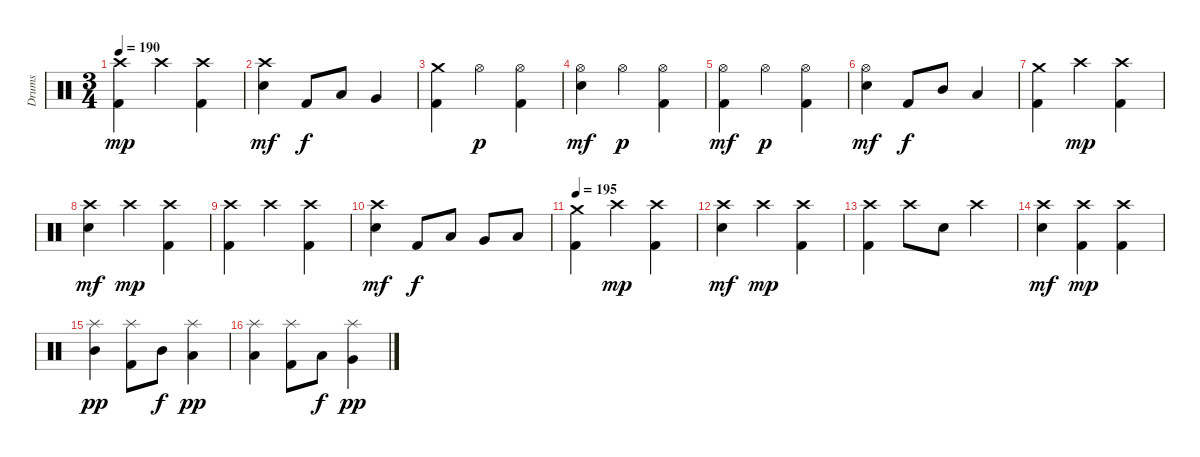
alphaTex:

\track ("Drums" "Drums") {instrument percussion}
\staff {score}
\articulation defaults
\ts (3 4)
\tempo 190
\clef neutral
\ks c
("Crash high (hit)" "Kick (hit) 2").4{dy mp} "Crash high (hit)".4 ("Crash high (hit)" "Kick (hit) 2").4 |
("Crash high (hit)" "Electric Snare (hit)").4{dy mf} "Kick (hit) 2".8{dy f} "Low Tom (hit)".8 "Very Low Tom (hit)".4 |
("Crash medium (hit)" "Kick (hit) 2").4 "Hi-Hat (open)".4{dy p} ("Hi-Hat (open)" "Kick (hit) 2").4 |
("Hi-Hat (open)" "Electric Snare (hit)").4{dy mf} "Hi-Hat (open)".4{dy p} ("Hi-Hat (open)" "Kick (hit) 2").4 |
("Hi-Hat (open)" "Kick (hit) 2").4{dy mf} "Hi-Hat (open)".4{dy p} ("Hi-Hat (open)" "Kick (hit) 2").4 |
("Hi-Hat (open)" "Electric Snare (hit)").4{dy mf} "Kick (hit) 2".8{dy f} "Mid Tom (hit)".8 "Low Tom (hit)".4 |
("Crash medium (hit)" "Kick (hit) 2").4 "Crash high (hit)".4{dy mp} ("Crash high (hit)" "Kick (hit) 2").4 |
("Crash high (hit)" "Electric Snare (hit)").4{dy mf} "Crash high (hit)".4{dy mp} ("Crash high (hit)" "Kick (hit) 2").4 |
("Crash high (hit)" "Kick (hit) 2").4 "Crash high (hit)".4 ("Crash high (hit)" "Kick (hit) 2").4 |
("Crash high (hit)" "Electric Snare (hit)").4{dy mf} "Kick (hit) 2".8{dy f} "Low Tom (hit)".8 "Very Low Tom (hit)".8 "Low Floor Tom (hit)".8 |
\tempo 195
("Crash medium (hit)" "Kick (hit) 2").4 "Crash high (hit)".4{dy mp} ("Crash high (hit)" "Kick (hit) 2").4 |
("Crash high (hit)" "Electric Snare (hit)").4{dy mf} "Crash high (hit)".4{dy mp} ("Crash high (hit)" "Kick (hit) 2").4 |
("Crash high (hit)" "Kick (hit) 2").4 "Crash high (hit)".8 "Electric Snare (hit)".8 "Crash high (hit)".4 |
("Crash high (hit)" "Electric Snare (hit)").4{dy mf} ("Crash high (hit)" "Kick (hit) 2").4{dy mp} ("Crash high (hit)" "Kick (hit) 2").4 |
("Splash (hit)" "Mid Tom (hit)").4{dy pp} ("Splash (hit)" "Kick (hit) 2").8 "Mid Tom (hit)".8{dy f} ("Splash (hit)" "Low Tom (hit)").4{dy pp} |
("Splash (hit)" "Low Tom (hit)").4 ("Splash (hit)" "Kick (hit) 2").8 "Low Tom (hit)".8{dy f} ("Splash (hit)" "Very Low Tom (hit)").4{dy pp}
